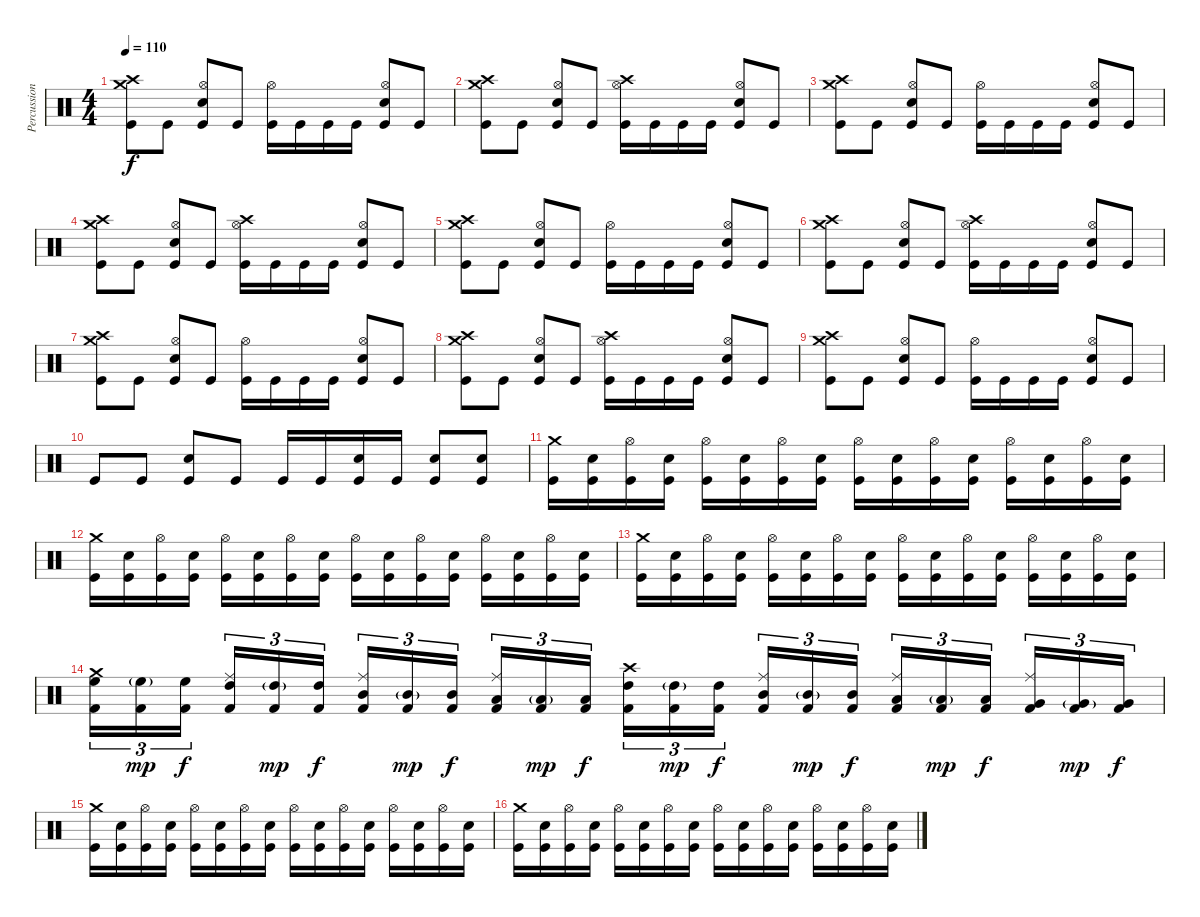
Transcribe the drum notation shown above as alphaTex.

\track ("Percussion" "Percussion") {instrument percussion}
\staff {score}
\articulation defaults
\ts (4 4)
\tempo 110
\clef neutral
\ks c
("Crash medium (hit)" "Crash high (hit)" "Kick (hit)").8{dy f} "Kick (hit)".8 ("Hi-Hat (open)" "Electric Snare (hit)" "Kick (hit)").8 "Kick (hit)".8 ("Hi-Hat (open)" "Kick (hit)").16 "Kick (hit)".16 "Kick (hit)".16 "Kick (hit)".16 ("Hi-Hat (open)" "Electric Snare (hit)" "Kick (hit)").8 "Kick (hit)".8 |
("Crash medium (hit)" "Crash high (hit)" "Kick (hit)").8 "Kick (hit)".8 ("Hi-Hat (open)" "Electric Snare (hit)" "Kick (hit)").8 "Kick (hit)".8 ("Hi-Hat (open)" "Crash high (hit)" "Kick (hit)").16 "Kick (hit)".16 "Kick (hit)".16 "Kick (hit)".16 ("Hi-Hat (open)" "Electric Snare (hit)" "Kick (hit)").8 "Kick (hit)".8 |
("Crash medium (hit)" "Crash high (hit)" "Kick (hit)").8 "Kick (hit)".8 ("Hi-Hat (open)" "Electric Snare (hit)" "Kick (hit)").8 "Kick (hit)".8 ("Hi-Hat (open)" "Kick (hit)").16 "Kick (hit)".16 "Kick (hit)".16 "Kick (hit)".16 ("Hi-Hat (open)" "Electric Snare (hit)" "Kick (hit)").8 "Kick (hit)".8 |
("Crash medium (hit)" "Crash high (hit)" "Kick (hit)").8 "Kick (hit)".8 ("Hi-Hat (open)" "Electric Snare (hit)" "Kick (hit)").8 "Kick (hit)".8 ("Hi-Hat (open)" "Crash high (hit)" "Kick (hit)").16 "Kick (hit)".16 "Kick (hit)".16 "Kick (hit)".16 ("Hi-Hat (open)" "Electric Snare (hit)" "Kick (hit)").8 "Kick (hit)".8 |
("Crash medium (hit)" "Crash high (hit)" "Kick (hit)").8 "Kick (hit)".8 ("Hi-Hat (open)" "Electric Snare (hit)" "Kick (hit)").8 "Kick (hit)".8 ("Hi-Hat (open)" "Kick (hit)").16 "Kick (hit)".16 "Kick (hit)".16 "Kick (hit)".16 ("Hi-Hat (open)" "Electric Snare (hit)" "Kick (hit)").8 "Kick (hit)".8 |
("Crash medium (hit)" "Crash high (hit)" "Kick (hit)").8 "Kick (hit)".8 ("Hi-Hat (open)" "Electric Snare (hit)" "Kick (hit)").8 "Kick (hit)".8 ("Hi-Hat (open)" "Crash high (hit)" "Kick (hit)").16 "Kick (hit)".16 "Kick (hit)".16 "Kick (hit)".16 ("Hi-Hat (open)" "Electric Snare (hit)" "Kick (hit)").8 "Kick (hit)".8 |
("Crash medium (hit)" "Crash high (hit)" "Kick (hit)").8 "Kick (hit)".8 ("Hi-Hat (open)" "Electric Snare (hit)" "Kick (hit)").8 "Kick (hit)".8 ("Hi-Hat (open)" "Kick (hit)").16 "Kick (hit)".16 "Kick (hit)".16 "Kick (hit)".16 ("Hi-Hat (open)" "Electric Snare (hit)" "Kick (hit)").8 "Kick (hit)".8 |
("Crash medium (hit)" "Crash high (hit)" "Kick (hit)").8 "Kick (hit)".8 ("Hi-Hat (open)" "Electric Snare (hit)" "Kick (hit)").8 "Kick (hit)".8 ("Hi-Hat (open)" "Crash high (hit)" "Kick (hit)").16 "Kick (hit)".16 "Kick (hit)".16 "Kick (hit)".16 ("Hi-Hat (open)" "Electric Snare (hit)" "Kick (hit)").8 "Kick (hit)".8 |
("Crash medium (hit)" "Crash high (hit)" "Kick (hit)").8 "Kick (hit)".8 ("Hi-Hat (open)" "Electric Snare (hit)" "Kick (hit)").8 "Kick (hit)".8 ("Hi-Hat (open)" "Kick (hit)").16 "Kick (hit)".16 "Kick (hit)".16 "Kick (hit)".16 ("Hi-Hat (open)" "Electric Snare (hit)" "Kick (hit)").8 "Kick (hit)".8 |
"Kick (hit)".8 "Kick (hit)".8 ("Electric Snare (hit)" "Kick (hit)").8 "Kick (hit)".8 "Kick (hit)".16 "Kick (hit)".16 ("Electric Snare (hit)" "Kick (hit)").16 "Kick (hit)".16 ("Electric Snare (hit)" "Kick (hit)").8 ("Electric Snare (hit)" "Kick (hit)").8 |
("Crash medium (hit)" "Kick (hit)").16 ("Electric Snare (hit)" "Kick (hit)").16 ("Hi-Hat (open)" "Kick (hit)").16 ("Electric Snare (hit)" "Kick (hit)").16 ("Hi-Hat (open)" "Kick (hit)").16 ("Electric Snare (hit)" "Kick (hit)").16 ("Hi-Hat (open)" "Kick (hit)").16 ("Electric Snare (hit)" "Kick (hit)").16 ("Hi-Hat (open)" "Kick (hit)").16 ("Electric Snare (hit)" "Kick (hit)").16 ("Hi-Hat (open)" "Kick (hit)").16 ("Electric Snare (hit)" "Kick (hit)").16 ("Hi-Hat (open)" "Kick (hit)").16 ("Electric Snare (hit)" "Kick (hit)").16 ("Hi-Hat (open)" "Kick (hit)").16 ("Electric Snare (hit)" "Kick (hit)").16 |
("Crash medium (hit)" "Kick (hit)").16 ("Electric Snare (hit)" "Kick (hit)").16 ("Hi-Hat (open)" "Kick (hit)").16 ("Electric Snare (hit)" "Kick (hit)").16 ("Hi-Hat (open)" "Kick (hit)").16 ("Electric Snare (hit)" "Kick (hit)").16 ("Hi-Hat (open)" "Kick (hit)").16 ("Electric Snare (hit)" "Kick (hit)").16 ("Hi-Hat (open)" "Kick (hit)").16 ("Electric Snare (hit)" "Kick (hit)").16 ("Hi-Hat (open)" "Kick (hit)").16 ("Electric Snare (hit)" "Kick (hit)").16 ("Hi-Hat (open)" "Kick (hit)").16 ("Electric Snare (hit)" "Kick (hit)").16 ("Hi-Hat (open)" "Kick (hit)").16 ("Electric Snare (hit)" "Kick (hit)").16 |
("Crash medium (hit)" "Kick (hit)").16 ("Electric Snare (hit)" "Kick (hit)").16 ("Hi-Hat (open)" "Kick (hit)").16 ("Electric Snare (hit)" "Kick (hit)").16 ("Hi-Hat (open)" "Kick (hit)").16 ("Electric Snare (hit)" "Kick (hit)").16 ("Hi-Hat (open)" "Kick (hit)").16 ("Electric Snare (hit)" "Kick (hit)").16 ("Hi-Hat (open)" "Kick (hit)").16 ("Electric Snare (hit)" "Kick (hit)").16 ("Hi-Hat (open)" "Kick (hit)").16 ("Electric Snare (hit)" "Kick (hit)").16 ("Hi-Hat (open)" "Kick (hit)").16 ("Electric Snare (hit)" "Kick (hit)").16 ("Hi-Hat (open)" "Kick (hit)").16 ("Electric Snare (hit)" "Kick (hit)").16 |
("Crash medium (hit)" "High Floor Tom (hit)" "Kick (hit) 2").16{tu (3 2)} ("High Floor Tom (hit)"{g} "Kick (hit) 2").16{tu (3 2) dy mp} ("High Floor Tom (hit)" "Kick (hit) 2").16{tu (3 2) dy f} ("Ride (middle)" "High Tom (hit)" "Kick (hit) 2").16{tu (3 2)} ("High Tom (hit)"{g} "Kick (hit) 2").16{tu (3 2) dy mp} ("High Tom (hit)" "Kick (hit) 2").16{tu (3 2) dy f} ("Ride (middle)" "Mid Tom (hit)" "Kick (hit) 2").16{tu (3 2)} ("Mid Tom (hit)"{g} "Kick (hit) 2").16{tu (3 2) dy mp} ("Mid Tom (hit)" "Kick (hit) 2").16{tu (3 2) dy f} ("Ride (middle)" "Low Tom (hit)" "Kick (hit) 2").16{tu (3 2)} ("Low Tom (hit)"{g} "Kick (hit) 2").16{tu (3 2) dy mp} ("Low Tom (hit)" "Kick (hit) 2").16{tu (3 2) dy f} ("Crash high (hit)" "High Tom (hit)" "Kick (hit) 2").16{tu (3 2)} ("High Tom (hit)"{g} "Kick (hit) 2").16{tu (3 2) dy mp} ("High Tom (hit)" "Kick (hit) 2").16{tu (3 2) dy f} ("Ride (middle)" "Mid Tom (hit)" "Kick (hit) 2").16{tu (3 2)} ("Mid Tom (hit)"{g} "Kick (hit) 2").16{tu (3 2) dy mp} ("Mid Tom (hit)" "Kick (hit) 2").16{tu (3 2) dy f} ("Ride (middle)" "Low Tom (hit)" "Kick (hit) 2").16{tu (3 2)} ("Low Tom (hit)"{g} "Kick (hit) 2").16{tu (3 2) dy mp} ("Low Tom (hit)" "Kick (hit) 2").16{tu (3 2) dy f} ("Ride (middle)" "Very Low Tom (hit)" "Kick (hit) 2").16{tu (3 2)} ("Very Low Tom (hit)"{g} "Kick (hit) 2").16{tu (3 2) dy mp} ("Very Low Tom (hit)" "Kick (hit) 2").16{tu (3 2) dy f} |
("Crash medium (hit)" "Kick (hit)").16 ("Electric Snare (hit)" "Kick (hit)").16 ("Hi-Hat (open)" "Kick (hit)").16 ("Electric Snare (hit)" "Kick (hit)").16 ("Hi-Hat (open)" "Kick (hit)").16 ("Electric Snare (hit)" "Kick (hit)").16 ("Hi-Hat (open)" "Kick (hit)").16 ("Electric Snare (hit)" "Kick (hit)").16 ("Hi-Hat (open)" "Kick (hit)").16 ("Electric Snare (hit)" "Kick (hit)").16 ("Hi-Hat (open)" "Kick (hit)").16 ("Electric Snare (hit)" "Kick (hit)").16 ("Hi-Hat (open)" "Kick (hit)").16 ("Electric Snare (hit)" "Kick (hit)").16 ("Hi-Hat (open)" "Kick (hit)").16 ("Electric Snare (hit)" "Kick (hit)").16 |
("Crash medium (hit)" "Kick (hit)").16 ("Electric Snare (hit)" "Kick (hit)").16 ("Hi-Hat (open)" "Kick (hit)").16 ("Electric Snare (hit)" "Kick (hit)").16 ("Hi-Hat (open)" "Kick (hit)").16 ("Electric Snare (hit)" "Kick (hit)").16 ("Hi-Hat (open)" "Kick (hit)").16 ("Electric Snare (hit)" "Kick (hit)").16 ("Hi-Hat (open)" "Kick (hit)").16 ("Electric Snare (hit)" "Kick (hit)").16 ("Hi-Hat (open)" "Kick (hit)").16 ("Electric Snare (hit)" "Kick (hit)").16 ("Hi-Hat (open)" "Kick (hit)").16 ("Electric Snare (hit)" "Kick (hit)").16 ("Hi-Hat (open)" "Kick (hit)").16 ("Electric Snare (hit)" "Kick (hit)").16
